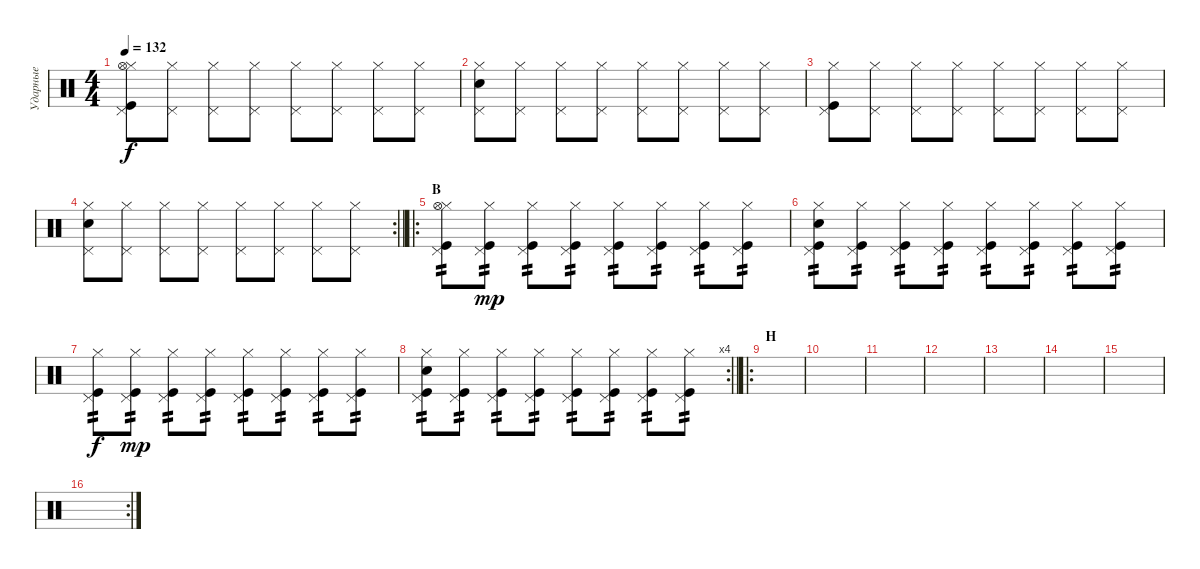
\track ("Ударные" "Ударные") {instrument percussion}
\staff {score}
\articulation defaults
\ts (4 4)
\tempo 132
\clef neutral
\ks c
("Hi-Hat (closed)" "Pedal Hi-Hat (hit)" "Hi-Hat (open)" "Kick (hit)").8{dy f} ("Hi-Hat (closed)" "Pedal Hi-Hat (hit)").8 ("Hi-Hat (closed)" "Pedal Hi-Hat (hit)").8 ("Hi-Hat (closed)" "Pedal Hi-Hat (hit)").8 ("Hi-Hat (closed)" "Pedal Hi-Hat (hit)").8 ("Hi-Hat (closed)" "Pedal Hi-Hat (hit)").8 ("Hi-Hat (closed)" "Pedal Hi-Hat (hit)").8 ("Hi-Hat (closed)" "Pedal Hi-Hat (hit)").8 |
("Hi-Hat (closed)" "Pedal Hi-Hat (hit)" "Electric Snare (hit)").8 ("Hi-Hat (closed)" "Pedal Hi-Hat (hit)").8 ("Hi-Hat (closed)" "Pedal Hi-Hat (hit)").8 ("Hi-Hat (closed)" "Pedal Hi-Hat (hit)").8 ("Hi-Hat (closed)" "Pedal Hi-Hat (hit)").8 ("Hi-Hat (closed)" "Pedal Hi-Hat (hit)").8 ("Hi-Hat (closed)" "Pedal Hi-Hat (hit)").8 ("Hi-Hat (closed)" "Pedal Hi-Hat (hit)").8 |
("Hi-Hat (closed)" "Pedal Hi-Hat (hit)" "Kick (hit)").8 ("Hi-Hat (closed)" "Pedal Hi-Hat (hit)").8 ("Hi-Hat (closed)" "Pedal Hi-Hat (hit)").8 ("Hi-Hat (closed)" "Pedal Hi-Hat (hit)").8 ("Hi-Hat (closed)" "Pedal Hi-Hat (hit)").8 ("Hi-Hat (closed)" "Pedal Hi-Hat (hit)").8 ("Hi-Hat (closed)" "Pedal Hi-Hat (hit)").8 ("Hi-Hat (closed)" "Pedal Hi-Hat (hit)").8 |
\rc 2
\barLineRight lightlight
("Hi-Hat (closed)" "Pedal Hi-Hat (hit)" "Electric Snare (hit)").8 ("Hi-Hat (closed)" "Pedal Hi-Hat (hit)").8 ("Hi-Hat (closed)" "Pedal Hi-Hat (hit)").8 ("Hi-Hat (closed)" "Pedal Hi-Hat (hit)").8 ("Hi-Hat (closed)" "Pedal Hi-Hat (hit)").8 ("Hi-Hat (closed)" "Pedal Hi-Hat (hit)").8 ("Hi-Hat (closed)" "Pedal Hi-Hat (hit)").8 ("Hi-Hat (closed)" "Pedal Hi-Hat (hit)").8 |
\ro
\section ("" "B")
("Hi-Hat (closed)" "Pedal Hi-Hat (hit)" "Hi-Hat (open)" "Kick (hit)").8{tp 2} ("Hi-Hat (closed)" "Pedal Hi-Hat (hit)" "Kick (hit)").8{tp 2 dy mp} ("Hi-Hat (closed)" "Pedal Hi-Hat (hit)" "Kick (hit)").8{tp 2} ("Hi-Hat (closed)" "Pedal Hi-Hat (hit)" "Kick (hit)").8{tp 2} ("Hi-Hat (closed)" "Pedal Hi-Hat (hit)" "Kick (hit)").8{tp 2} ("Hi-Hat (closed)" "Pedal Hi-Hat (hit)" "Kick (hit)").8{tp 2} ("Hi-Hat (closed)" "Pedal Hi-Hat (hit)" "Kick (hit)").8{tp 2} ("Hi-Hat (closed)" "Pedal Hi-Hat (hit)" "Kick (hit)").8{tp 2} |
("Hi-Hat (closed)" "Pedal Hi-Hat (hit)" "Electric Snare (hit)" "Kick (hit)").8{tp 2} ("Hi-Hat (closed)" "Pedal Hi-Hat (hit)" "Kick (hit)").8{tp 2} ("Hi-Hat (closed)" "Pedal Hi-Hat (hit)" "Kick (hit)").8{tp 2} ("Hi-Hat (closed)" "Pedal Hi-Hat (hit)" "Kick (hit)").8{tp 2} ("Hi-Hat (closed)" "Pedal Hi-Hat (hit)" "Kick (hit)").8{tp 2} ("Hi-Hat (closed)" "Pedal Hi-Hat (hit)" "Kick (hit)").8{tp 2} ("Hi-Hat (closed)" "Pedal Hi-Hat (hit)" "Kick (hit)").8{tp 2} ("Hi-Hat (closed)" "Pedal Hi-Hat (hit)" "Kick (hit)").8{tp 2} |
("Hi-Hat (closed)" "Pedal Hi-Hat (hit)" "Kick (hit)").8{tp 2 dy f} ("Hi-Hat (closed)" "Pedal Hi-Hat (hit)" "Kick (hit)").8{tp 2 dy mp} ("Hi-Hat (closed)" "Pedal Hi-Hat (hit)" "Kick (hit)").8{tp 2} ("Hi-Hat (closed)" "Pedal Hi-Hat (hit)" "Kick (hit)").8{tp 2} ("Hi-Hat (closed)" "Pedal Hi-Hat (hit)" "Kick (hit)").8{tp 2} ("Hi-Hat (closed)" "Pedal Hi-Hat (hit)" "Kick (hit)").8{tp 2} ("Hi-Hat (closed)" "Pedal Hi-Hat (hit)" "Kick (hit)").8{tp 2} ("Hi-Hat (closed)" "Pedal Hi-Hat (hit)" "Kick (hit)").8{tp 2} |
\rc 4
\barLineRight lightlight
("Hi-Hat (closed)" "Pedal Hi-Hat (hit)" "Electric Snare (hit)" "Kick (hit)").8{tp 2} ("Hi-Hat (closed)" "Pedal Hi-Hat (hit)" "Kick (hit)").8{tp 2} ("Hi-Hat (closed)" "Pedal Hi-Hat (hit)" "Kick (hit)").8{tp 2} ("Hi-Hat (closed)" "Pedal Hi-Hat (hit)" "Kick (hit)").8{tp 2} ("Hi-Hat (closed)" "Pedal Hi-Hat (hit)" "Kick (hit)").8{tp 2} ("Hi-Hat (closed)" "Pedal Hi-Hat (hit)" "Kick (hit)").8{tp 2} ("Hi-Hat (closed)" "Pedal Hi-Hat (hit)" "Kick (hit)").8{tp 2} ("Hi-Hat (closed)" "Pedal Hi-Hat (hit)" "Kick (hit)").8{tp 2} |
\ro
\section ("" "H")
|
|
|
|
|
|
|
\rc 2
